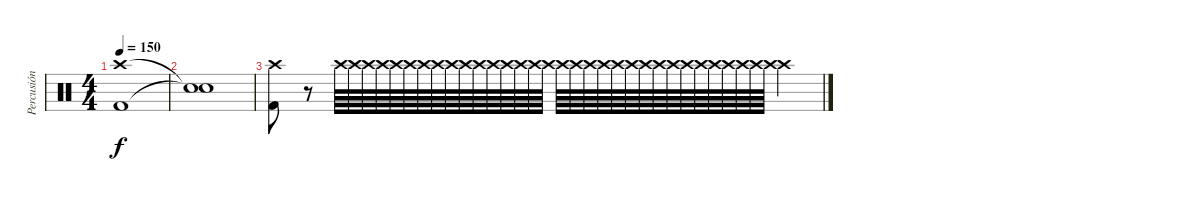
\track ("Percusión" "Percusión") {instrument percussion}
\staff {score}
\articulation defaults
\ts (4 4)
\tempo 150
\clef neutral
\ks c
("Crash high (hit)" "Kick (hit) 2").1{dy f} |
("Snare (hit)"{t} "Snare (hit)"{t}).1 |
("Crash high (hit)" "Kick (hit) 2").8 r.8{volume 0} "Crash high (hit)".64{volume 16} "Crash high (hit)".64 "Crash high (hit)".64 "Crash high (hit)".64 "Crash high (hit)".64 "Crash high (hit)".64 "Crash high (hit)".64 "Crash high (hit)".64 "Crash high (hit)".64 "Crash high (hit)".64 "Crash high (hit)".64 "Crash high (hit)".64 "Crash high (hit)".64 "Crash high (hit)".64 "Crash high (hit)".64 "Crash high (hit)".64 "Crash high (hit)".64 "Crash high (hit)".64 "Crash high (hit)".64 "Crash high (hit)".64 "Crash high (hit)".64 "Crash high (hit)".64 "Crash high (hit)".64 "Crash high (hit)".64 "Crash high (hit)".64 "Crash high (hit)".64 "Crash high (hit)".64 "Crash high (hit)".64 "Crash high (hit)".64 "Crash high (hit)".64 "Crash high (hit)".64 "Crash high (hit)".64 "Crash high (hit)".4
